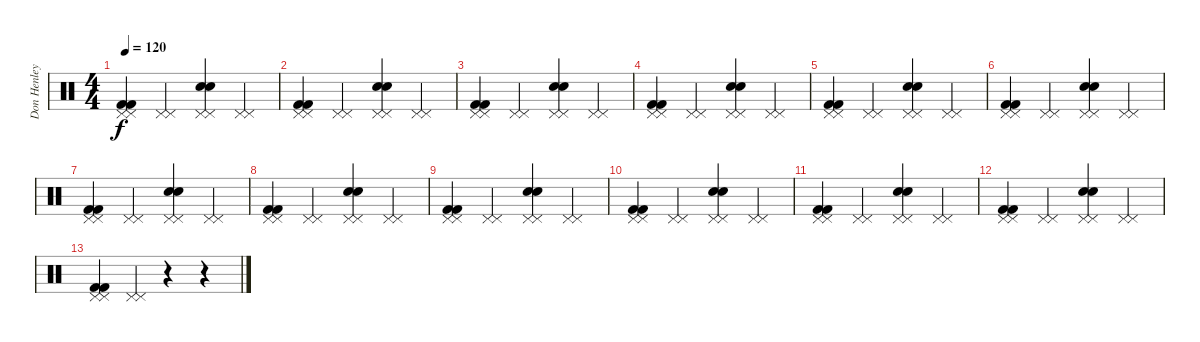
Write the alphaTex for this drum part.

\track ("Don Henley (Drums)" "Don Henley") {instrument percussion}
\staff {score}
\articulation defaults
\ts (4 4)
\tempo 120
\clef neutral
\ks c
("Pedal Hi-Hat (hit)" "Pedal Hi-Hat (hit)" "Kick (hit) 2" "Kick (hit) 2").4{dy f} ("Pedal Hi-Hat (hit)" "Pedal Hi-Hat (hit)").4 ("Pedal Hi-Hat (hit)" "Pedal Hi-Hat (hit)" "Electric Snare (hit)" "Electric Snare (hit)").4 ("Pedal Hi-Hat (hit)" "Pedal Hi-Hat (hit)").4 |
("Pedal Hi-Hat (hit)" "Pedal Hi-Hat (hit)" "Kick (hit) 2" "Kick (hit) 2").4 ("Pedal Hi-Hat (hit)" "Pedal Hi-Hat (hit)").4 ("Pedal Hi-Hat (hit)" "Pedal Hi-Hat (hit)" "Electric Snare (hit)" "Electric Snare (hit)").4 ("Pedal Hi-Hat (hit)" "Pedal Hi-Hat (hit)").4 |
("Pedal Hi-Hat (hit)" "Pedal Hi-Hat (hit)" "Kick (hit) 2" "Kick (hit) 2").4 ("Pedal Hi-Hat (hit)" "Pedal Hi-Hat (hit)").4 ("Pedal Hi-Hat (hit)" "Pedal Hi-Hat (hit)" "Electric Snare (hit)" "Electric Snare (hit)").4 ("Pedal Hi-Hat (hit)" "Pedal Hi-Hat (hit)").4 |
("Pedal Hi-Hat (hit)" "Pedal Hi-Hat (hit)" "Kick (hit) 2" "Kick (hit) 2").4 ("Pedal Hi-Hat (hit)" "Pedal Hi-Hat (hit)").4 ("Pedal Hi-Hat (hit)" "Pedal Hi-Hat (hit)" "Electric Snare (hit)" "Electric Snare (hit)").4 ("Pedal Hi-Hat (hit)" "Pedal Hi-Hat (hit)").4 |
("Pedal Hi-Hat (hit)" "Pedal Hi-Hat (hit)" "Kick (hit) 2" "Kick (hit) 2").4 ("Pedal Hi-Hat (hit)" "Pedal Hi-Hat (hit)").4 ("Pedal Hi-Hat (hit)" "Pedal Hi-Hat (hit)" "Electric Snare (hit)" "Electric Snare (hit)").4 ("Pedal Hi-Hat (hit)" "Pedal Hi-Hat (hit)").4 |
("Pedal Hi-Hat (hit)" "Pedal Hi-Hat (hit)" "Kick (hit) 2" "Kick (hit) 2").4 ("Pedal Hi-Hat (hit)" "Pedal Hi-Hat (hit)").4 ("Pedal Hi-Hat (hit)" "Pedal Hi-Hat (hit)" "Electric Snare (hit)" "Electric Snare (hit)").4 ("Pedal Hi-Hat (hit)" "Pedal Hi-Hat (hit)").4 |
("Pedal Hi-Hat (hit)" "Pedal Hi-Hat (hit)" "Kick (hit) 2" "Kick (hit) 2").4 ("Pedal Hi-Hat (hit)" "Pedal Hi-Hat (hit)").4 ("Pedal Hi-Hat (hit)" "Pedal Hi-Hat (hit)" "Electric Snare (hit)" "Electric Snare (hit)").4 ("Pedal Hi-Hat (hit)" "Pedal Hi-Hat (hit)").4 |
("Pedal Hi-Hat (hit)" "Pedal Hi-Hat (hit)" "Kick (hit) 2" "Kick (hit) 2").4 ("Pedal Hi-Hat (hit)" "Pedal Hi-Hat (hit)").4 ("Pedal Hi-Hat (hit)" "Pedal Hi-Hat (hit)" "Electric Snare (hit)" "Electric Snare (hit)").4 ("Pedal Hi-Hat (hit)" "Pedal Hi-Hat (hit)").4 |
("Pedal Hi-Hat (hit)" "Pedal Hi-Hat (hit)" "Kick (hit) 2" "Kick (hit) 2").4 ("Pedal Hi-Hat (hit)" "Pedal Hi-Hat (hit)").4 ("Pedal Hi-Hat (hit)" "Pedal Hi-Hat (hit)" "Electric Snare (hit)" "Electric Snare (hit)").4 ("Pedal Hi-Hat (hit)" "Pedal Hi-Hat (hit)").4 |
("Pedal Hi-Hat (hit)" "Pedal Hi-Hat (hit)" "Kick (hit) 2" "Kick (hit) 2").4 ("Pedal Hi-Hat (hit)" "Pedal Hi-Hat (hit)").4 ("Pedal Hi-Hat (hit)" "Pedal Hi-Hat (hit)" "Electric Snare (hit)" "Electric Snare (hit)").4 ("Pedal Hi-Hat (hit)" "Pedal Hi-Hat (hit)").4 |
("Pedal Hi-Hat (hit)" "Pedal Hi-Hat (hit)" "Kick (hit) 2" "Kick (hit) 2").4 ("Pedal Hi-Hat (hit)" "Pedal Hi-Hat (hit)").4 ("Pedal Hi-Hat (hit)" "Pedal Hi-Hat (hit)" "Electric Snare (hit)" "Electric Snare (hit)").4 ("Pedal Hi-Hat (hit)" "Pedal Hi-Hat (hit)").4 |
("Pedal Hi-Hat (hit)" "Pedal Hi-Hat (hit)" "Kick (hit) 2" "Kick (hit) 2").4 ("Pedal Hi-Hat (hit)" "Pedal Hi-Hat (hit)").4 ("Pedal Hi-Hat (hit)" "Pedal Hi-Hat (hit)" "Electric Snare (hit)" "Electric Snare (hit)").4 ("Pedal Hi-Hat (hit)" "Pedal Hi-Hat (hit)").4 |
("Pedal Hi-Hat (hit)" "Pedal Hi-Hat (hit)" "Kick (hit) 2" "Kick (hit) 2").4 ("Pedal Hi-Hat (hit)" "Pedal Hi-Hat (hit)").4 r.4 r.4
